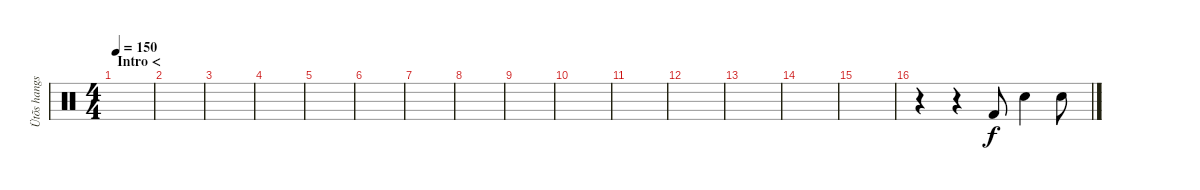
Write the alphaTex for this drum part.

\track ("Ütõs hangszer" "Ütõs hangs") {instrument percussion}
\staff {score}
\articulation defaults
\ts (4 4)
\section ("" "Intro <")
\tempo 150
\clef neutral
\ks c
|
|
|
|
|
|
|
|
|
|
|
|
|
|
|
r.4 r.4 "Kick (hit) 2".8 "Electric Snare (hit)".4 "Electric Snare (hit)".8
